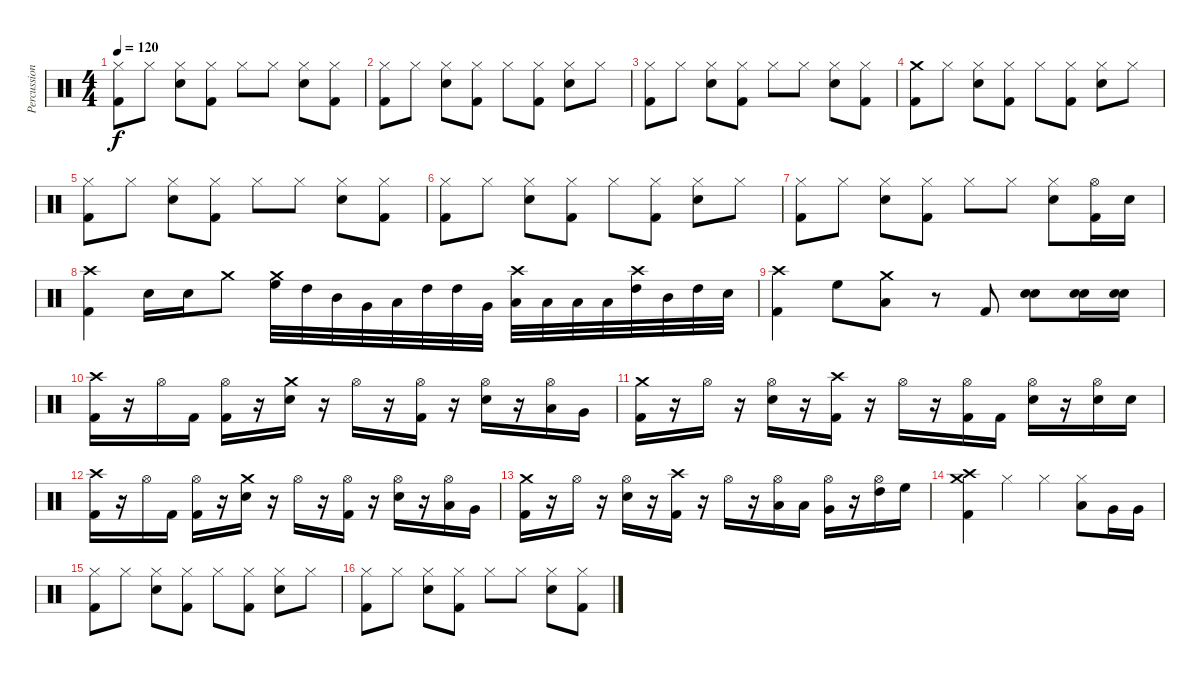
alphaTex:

\track ("Percussion" "Percussion") {instrument percussion}
\staff {score}
\articulation defaults
\ts (4 4)
\tempo 120
\clef neutral
\ks c
("Hi-Hat (closed)" "Kick (hit) 2").8{dy f} "Hi-Hat (closed)".8 ("Hi-Hat (closed)" "Snare (hit) 2").8 ("Hi-Hat (closed)" "Kick (hit) 2").8 "Hi-Hat (closed)".8 "Hi-Hat (closed)".8 ("Hi-Hat (closed)" "Snare (hit) 2").8 ("Hi-Hat (closed)" "Kick (hit) 2").8 |
("Hi-Hat (closed)" "Kick (hit) 2").8 "Hi-Hat (closed)".8 ("Hi-Hat (closed)" "Snare (hit) 2").8 ("Hi-Hat (closed)" "Kick (hit) 2").8 "Hi-Hat (closed)".8 ("Hi-Hat (closed)" "Kick (hit) 2").8 ("Hi-Hat (closed)" "Snare (hit) 2").8 "Hi-Hat (closed)".8 |
("Hi-Hat (closed)" "Kick (hit) 2").8 "Hi-Hat (closed)".8 ("Hi-Hat (closed)" "Snare (hit) 2").8 ("Hi-Hat (closed)" "Kick (hit) 2").8 "Hi-Hat (closed)".8 "Hi-Hat (closed)".8 ("Hi-Hat (closed)" "Snare (hit) 2").8 ("Hi-Hat (closed)" "Kick (hit) 2").8 |
("Crash medium (hit)" "Kick (hit) 2").8 "Hi-Hat (closed)".8 ("Hi-Hat (closed)" "Snare (hit) 2").8 ("Hi-Hat (closed)" "Kick (hit) 2").8 "Hi-Hat (closed)".8 ("Hi-Hat (closed)" "Kick (hit) 2").8 ("Hi-Hat (closed)" "Snare (hit) 2").8 "Hi-Hat (closed)".8 |
("Hi-Hat (closed)" "Kick (hit) 2").8 "Hi-Hat (closed)".8 ("Hi-Hat (closed)" "Snare (hit) 2").8 ("Hi-Hat (closed)" "Kick (hit) 2").8 "Hi-Hat (closed)".8 "Hi-Hat (closed)".8 ("Hi-Hat (closed)" "Snare (hit) 2").8 ("Hi-Hat (closed)" "Kick (hit) 2").8 |
("Hi-Hat (closed)" "Kick (hit) 2").8 "Hi-Hat (closed)".8 ("Hi-Hat (closed)" "Snare (hit) 2").8 ("Hi-Hat (closed)" "Kick (hit) 2").8 "Hi-Hat (closed)".8 ("Hi-Hat (closed)" "Kick (hit) 2").8 ("Hi-Hat (closed)" "Snare (hit) 2").8 "Hi-Hat (closed)".8 |
("Hi-Hat (closed)" "Kick (hit) 2").8 "Hi-Hat (closed)".8 ("Hi-Hat (closed)" "Snare (hit) 2").8 ("Hi-Hat (closed)" "Kick (hit) 2").8 "Hi-Hat (closed)".8 "Hi-Hat (closed)".8 ("Hi-Hat (closed)" "Snare (hit) 2").8 ("Hi-Hat (open)" "Kick (hit) 2").16 "Snare (hit) 2".16 |
("Crash high (hit)" "Kick (hit) 2").4 "Snare (hit) 2".16 "Snare (hit) 2".16 "Crash medium (hit)".8 ("Crash medium (hit)" "High Floor Tom (hit)").32 "High Tom (hit)".32 "Mid Tom (hit)".32 "Very Low Tom (hit)".32 "Low Tom (hit)".32 "High Tom (hit)".32 "High Tom (hit)".32 "Very Low Tom (hit)".32 ("Crash high (hit)" "Low Tom (hit)").32 "Low Tom (hit)".32 "Low Tom (hit)".32 "Low Tom (hit)".32 ("Crash high (hit)" "High Tom (hit)").32 "Mid Tom (hit)".32 "High Tom (hit)".32 "Snare (hit) 2".32 |
("Crash high (hit)" "Kick (hit) 2").4 "High Floor Tom (hit)".8 ("Crash medium (hit)" "Low Tom (hit)").8 r.8 "Kick (hit) 2".8 ("Snare (hit) 2" "Snare (hit) 2").8 ("Snare (hit) 2" "Snare (hit) 2").16 ("Snare (hit) 2" "Snare (hit) 2").16 |
("Crash high (hit)" "Kick (hit) 2").16 r.16 "Hi-Hat (open)".16 "Kick (hit) 2".16 ("Hi-Hat (open)" "Kick (hit) 2").16 r.16 ("Crash medium (hit)" "Snare (hit) 2").16 r.16 "Hi-Hat (open)".16 r.16 ("Hi-Hat (open)" "Kick (hit) 2").16 r.16 ("Hi-Hat (open)" "Snare (hit) 2").16 r.16 ("Hi-Hat (open)" "Low Tom (hit)").16 "Very Low Tom (hit)".16 |
("Crash medium (hit)" "Kick (hit) 2").16 r.16 "Hi-Hat (open)".16 r.16 ("Hi-Hat (open)" "Snare (hit) 2").16 r.16 ("Crash high (hit)" "Kick (hit) 2").16 r.16 "Hi-Hat (open)".16 r.16 ("Hi-Hat (open)" "Kick (hit) 2").16 "Kick (hit) 2".16 ("Hi-Hat (open)" "Snare (hit) 2").16 r.16 ("Hi-Hat (open)" "Snare (hit) 2").16 "Snare (hit) 2".16 |
("Crash high (hit)" "Kick (hit) 2").16 r.16 "Hi-Hat (open)".16 "Kick (hit) 2".16 ("Hi-Hat (open)" "Kick (hit) 2").16 r.16 ("Crash medium (hit)" "Snare (hit) 2").16 r.16 "Hi-Hat (open)".16 r.16 ("Hi-Hat (open)" "Kick (hit) 2").16 r.16 ("Hi-Hat (open)" "Snare (hit) 2").16 r.16 ("Hi-Hat (open)" "Low Tom (hit)").16 "Very Low Tom (hit)".16 |
("Crash medium (hit)" "Kick (hit) 2").16 r.16 "Hi-Hat (open)".16 r.16 ("Hi-Hat (open)" "Snare (hit) 2").16 r.16 ("Crash high (hit)" "Kick (hit) 2").16 r.16 "Hi-Hat (open)".16 r.16 ("Hi-Hat (open)" "Low Tom (hit)").16 "Low Tom (hit)".16 ("Hi-Hat (open)" "Very Low Tom (hit)").16 r.16 ("Hi-Hat (open)" "High Tom (hit)").16 "High Floor Tom (hit)".16 |
("Crash high (hit)" "Crash medium (hit)" "Kick (hit) 2").4 "Hi-Hat (closed)".4 "Hi-Hat (closed)".4 ("Hi-Hat (closed)" "Low Tom (hit)").8 "Very Low Tom (hit)".16 "Very Low Tom (hit)".16 |
("Hi-Hat (closed)" "Kick (hit) 2").8 "Hi-Hat (closed)".8 ("Hi-Hat (closed)" "Snare (hit) 2").8 ("Hi-Hat (closed)" "Kick (hit) 2").8 "Hi-Hat (closed)".8 ("Hi-Hat (closed)" "Kick (hit) 2").8 ("Hi-Hat (closed)" "Snare (hit) 2").8 "Hi-Hat (closed)".8 |
("Hi-Hat (closed)" "Kick (hit) 2").8 "Hi-Hat (closed)".8 ("Hi-Hat (closed)" "Snare (hit) 2").8 ("Hi-Hat (closed)" "Kick (hit) 2").8 "Hi-Hat (closed)".8 "Hi-Hat (closed)".8 ("Hi-Hat (closed)" "Snare (hit) 2").8 ("Hi-Hat (closed)" "Kick (hit) 2").8
